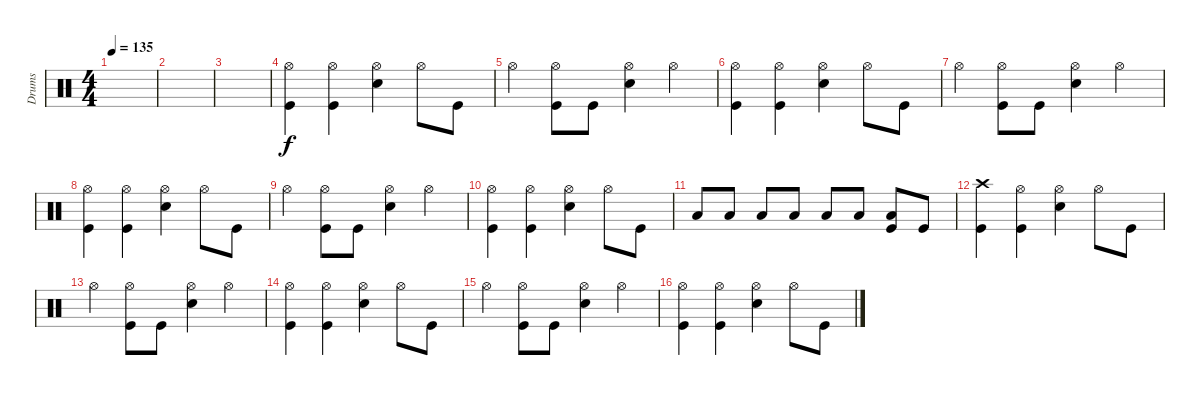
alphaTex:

\track ("Drums" "Drums") {instrument percussion}
\staff {score}
\articulation defaults
\ts (4 4)
\tempo 135
\clef neutral
\ks c
|
|
|
("Hi-Hat (open)" "Kick (hit)").4 ("Hi-Hat (open)" "Kick (hit)").4 ("Hi-Hat (open)" "Snare (hit) 2").4 "Hi-Hat (open)".8 "Kick (hit)".8 |
"Hi-Hat (open)".4 ("Hi-Hat (open)" "Kick (hit)").8 "Kick (hit)".8 ("Hi-Hat (open)" "Snare (hit) 2").4 "Hi-Hat (open)".4 |
("Hi-Hat (open)" "Kick (hit)").4 ("Hi-Hat (open)" "Kick (hit)").4 ("Hi-Hat (open)" "Snare (hit) 2").4 "Hi-Hat (open)".8 "Kick (hit)".8 |
"Hi-Hat (open)".4 ("Hi-Hat (open)" "Kick (hit)").8 "Kick (hit)".8 ("Hi-Hat (open)" "Snare (hit) 2").4 "Hi-Hat (open)".4 |
("Hi-Hat (open)" "Kick (hit)").4 ("Hi-Hat (open)" "Kick (hit)").4 ("Hi-Hat (open)" "Snare (hit) 2").4 "Hi-Hat (open)".8 "Kick (hit)".8 |
"Hi-Hat (open)".4 ("Hi-Hat (open)" "Kick (hit)").8 "Kick (hit)".8 ("Hi-Hat (open)" "Snare (hit) 2").4 "Hi-Hat (open)".4 |
("Hi-Hat (open)" "Kick (hit)").4 ("Hi-Hat (open)" "Kick (hit)").4 ("Hi-Hat (open)" "Snare (hit) 2").4 "Hi-Hat (open)".8 "Kick (hit)".8 |
"Low Tom (hit)".8 "Low Tom (hit)".8 "Low Tom (hit)".8 "Low Tom (hit)".8 "Low Floor Tom (hit)".8 "Low Floor Tom (hit)".8 ("Low Floor Tom (hit)" "Kick (hit)").8 "Kick (hit)".8 |
("Crash high (hit)" "Kick (hit)").4 ("Hi-Hat (open)" "Kick (hit)").4 ("Hi-Hat (open)" "Snare (hit) 2").4 "Hi-Hat (open)".8 "Kick (hit)".8 |
"Hi-Hat (open)".4 ("Hi-Hat (open)" "Kick (hit)").8 "Kick (hit)".8 ("Hi-Hat (open)" "Snare (hit) 2").4 "Hi-Hat (open)".4 |
("Hi-Hat (open)" "Kick (hit)").4 ("Hi-Hat (open)" "Kick (hit)").4 ("Hi-Hat (open)" "Snare (hit) 2").4 "Hi-Hat (open)".8 "Kick (hit)".8 |
"Hi-Hat (open)".4 ("Hi-Hat (open)" "Kick (hit)").8 "Kick (hit)".8 ("Hi-Hat (open)" "Snare (hit) 2").4 "Hi-Hat (open)".4 |
("Hi-Hat (open)" "Kick (hit)").4 ("Hi-Hat (open)" "Kick (hit)").4 ("Hi-Hat (open)" "Snare (hit) 2").4 "Hi-Hat (open)".8 "Kick (hit)".8
